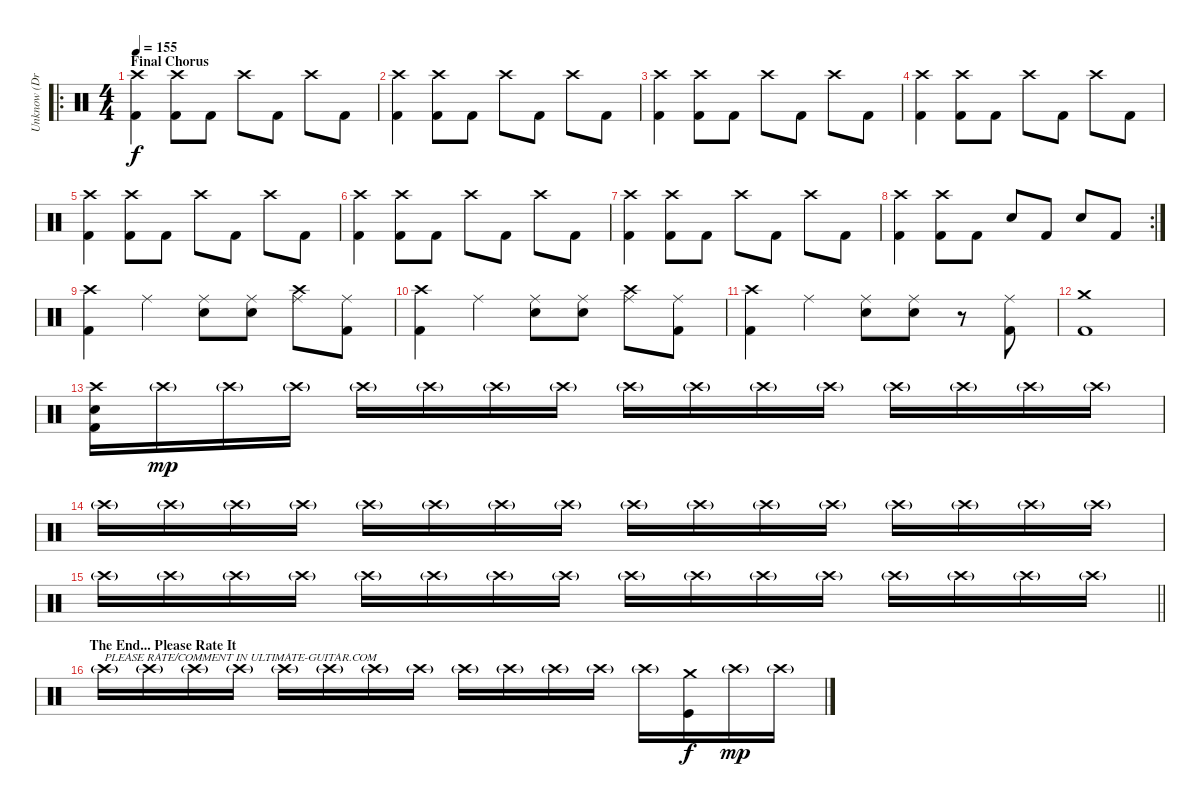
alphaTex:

\track ("Unknow (Drumer)" "Unknow (Dr") {instrument percussion}
\staff {score}
\articulation defaults
\ro
\ts (4 4)
\section ("" "Final Chorus")
\tempo 155
\clef neutral
\ks c
("Crash high (hit)" "Kick (hit) 2").4{dy f} ("Crash high (hit)" "Kick (hit) 2").8 "Kick (hit) 2".8 "Crash high (hit)".8 "Kick (hit) 2".8 "Crash high (hit)".8 "Kick (hit) 2".8 |
("Crash high (hit)" "Kick (hit) 2").4 ("Crash high (hit)" "Kick (hit) 2").8 "Kick (hit) 2".8 "Crash high (hit)".8 "Kick (hit) 2".8 "Crash high (hit)".8 "Kick (hit) 2".8 |
("Crash high (hit)" "Kick (hit) 2").4 ("Crash high (hit)" "Kick (hit) 2").8 "Kick (hit) 2".8 "Crash high (hit)".8 "Kick (hit) 2".8 "Crash high (hit)".8 "Kick (hit) 2".8 |
("Crash high (hit)" "Kick (hit) 2").4 ("Crash high (hit)" "Kick (hit) 2").8 "Kick (hit) 2".8 "Crash high (hit)".8 "Kick (hit) 2".8 "Crash high (hit)".8 "Kick (hit) 2".8 |
("Crash high (hit)" "Kick (hit) 2").4 ("Crash high (hit)" "Kick (hit) 2").8 "Kick (hit) 2".8 "Crash high (hit)".8 "Kick (hit) 2".8 "Crash high (hit)".8 "Kick (hit) 2".8 |
("Crash high (hit)" "Kick (hit) 2").4 ("Crash high (hit)" "Kick (hit) 2").8 "Kick (hit) 2".8 "Crash high (hit)".8 "Kick (hit) 2".8 "Crash high (hit)".8 "Kick (hit) 2".8 |
("Crash high (hit)" "Kick (hit) 2").4 ("Crash high (hit)" "Kick (hit) 2").8 "Kick (hit) 2".8 "Crash high (hit)".8 "Kick (hit) 2".8 "Crash high (hit)".8 "Kick (hit) 2".8 |
\rc 2
("Crash high (hit)" "Kick (hit) 2").4 ("Crash high (hit)" "Kick (hit) 2").8 "Kick (hit) 2".8 "Electric Snare (hit)".8 "Kick (hit) 2".8 "Electric Snare (hit)".8 "Kick (hit) 2".8 |
("Crash high (hit)" "Kick (hit) 2").4 "Ride (middle)".4 ("Ride (middle)" "Electric Snare (hit)").8 ("Ride (middle)" "Electric Snare (hit)").8 ("Crash high (hit)" "Ride (middle)").8 ("Ride (middle)" "Kick (hit) 2").8 |
("Crash high (hit)" "Kick (hit) 2").4 "Ride (middle)".4 ("Ride (middle)" "Electric Snare (hit)").8 ("Ride (middle)" "Electric Snare (hit)").8 ("Crash high (hit)" "Ride (middle)").8 ("Ride (middle)" "Kick (hit) 2").8 |
("Crash high (hit)" "Kick (hit) 2").4 "Ride (middle)".4 ("Ride (middle)" "Electric Snare (hit)").8 ("Ride (middle)" "Electric Snare (hit)").8 r.8 ("Ride (middle)" "Kick (hit) 2").8 |
("Crash medium (hit)" "Kick (hit) 2").1 |
("Crash high (hit)" "Electric Snare (hit)" "Kick (hit) 2").16 "Crash high (hit)"{g}.16{dy mp} "Crash high (hit)"{g}.16 "Crash high (hit)"{g}.16 "Crash high (hit)"{g}.16 "Crash high (hit)"{g}.16 "Crash high (hit)"{g}.16 "Crash high (hit)"{g}.16 "Crash high (hit)"{g}.16 "Crash high (hit)"{g}.16 "Crash high (hit)"{g}.16 "Crash high (hit)"{g}.16 "Crash high (hit)"{g}.16 "Crash high (hit)"{g}.16 "Crash high (hit)"{g}.16 "Crash high (hit)"{g}.16 |
"Crash high (hit)"{g}.16 "Crash high (hit)"{g}.16 "Crash high (hit)"{g}.16 "Crash high (hit)"{g}.16 "Crash high (hit)"{g}.16 "Crash high (hit)"{g}.16 "Crash high (hit)"{g}.16 "Crash high (hit)"{g}.16 "Crash high (hit)"{g}.16 "Crash high (hit)"{g}.16 "Crash high (hit)"{g}.16 "Crash high (hit)"{g}.16 "Crash high (hit)"{g}.16 "Crash high (hit)"{g}.16 "Crash high (hit)"{g}.16 "Crash high (hit)"{g}.16 |
\barLineRight lightlight "Crash high (hit)"{g}.16 "Crash high (hit)"{g}.16 "Crash high (hit)"{g}.16 "Crash high (hit)"{g}.16 "Crash high (hit)"{g}.16 "Crash high (hit)"{g}.16 "Crash high (hit)"{g}.16 "Crash high (hit)"{g}.16 "Crash high (hit)"{g}.16 "Crash high (hit)"{g}.16 "Crash high (hit)"{g}.16 "Crash high (hit)"{g}.16 "Crash high (hit)"{g}.16 "Crash high (hit)"{g}.16 "Crash high (hit)"{g}.16 "Crash high (hit)"{g}.16
|
\section ("" "The End... Please Rate It")
"Crash high (hit)"{g}.16{txt "PLEASE RATE/COMMENT IN ULTIMATE-GUITAR.COM"} "Crash high (hit)"{g}.16 "Crash high (hit)"{g}.16 "Crash high (hit)"{g}.16 "Crash high (hit)"{g}.16 "Crash high (hit)"{g}.16 "Crash high (hit)"{g}.16 "Crash high (hit)"{g}.16 "Crash high (hit)"{g}.16 "Crash high (hit)"{g}.16 "Crash high (hit)"{g}.16 "Crash high (hit)"{g}.16 "Crash high (hit)"{g}.16 ("Crash medium (hit)" "Kick (hit)").16{dy f} "Crash high (hit)"{g}.16{dy mp} "Crash high (hit)"{g}.16
